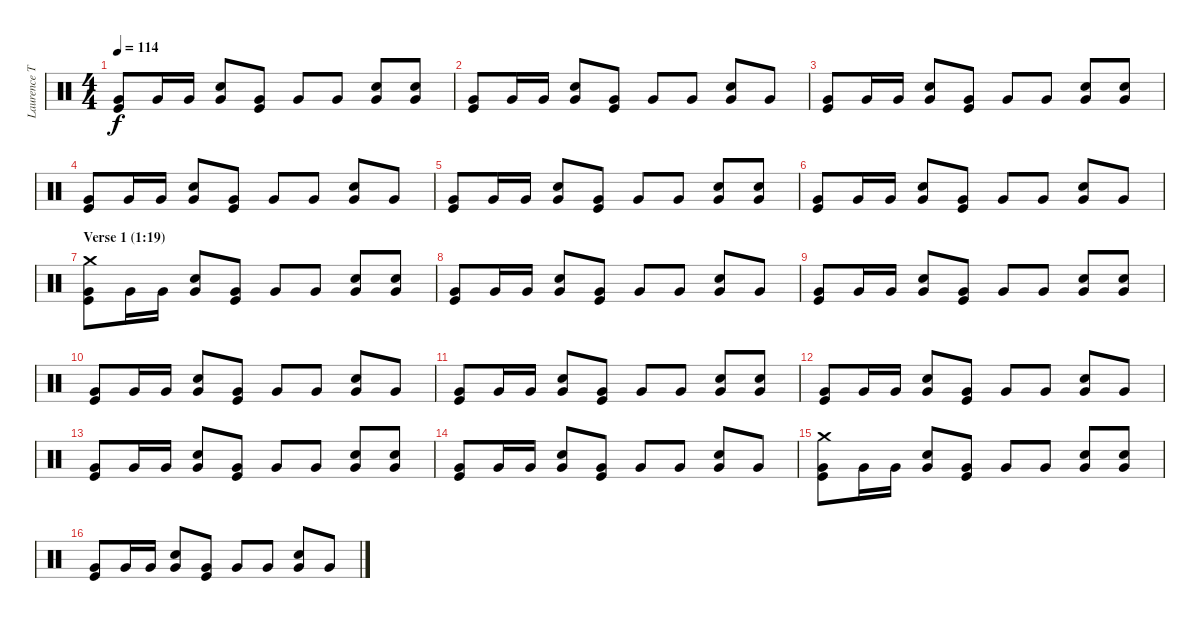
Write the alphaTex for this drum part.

\track ("Laurence Tolhurst (drums)" "Laurence T") {instrument percussion}
\staff {score}
\articulation defaults
\ts (4 4)
\tempo 114
\clef neutral
\ks c
("Very Low Tom (hit)" "Kick (hit)").8{dy f} "Very Low Tom (hit)".16 "Very Low Tom (hit)".16 ("Very Low Tom (hit)" "Snare (hit) 2").8 ("Very Low Tom (hit)" "Kick (hit)").8 "Very Low Tom (hit)".8 "Very Low Tom (hit)".8 ("Very Low Tom (hit)" "Snare (hit) 2").8 ("Very Low Tom (hit)" "Snare (hit) 2").8 |
("Very Low Tom (hit)" "Kick (hit)").8 "Very Low Tom (hit)".16 "Very Low Tom (hit)".16 ("Very Low Tom (hit)" "Snare (hit) 2").8 ("Very Low Tom (hit)" "Kick (hit)").8 "Very Low Tom (hit)".8 "Very Low Tom (hit)".8 ("Very Low Tom (hit)" "Snare (hit) 2").8 "Very Low Tom (hit)".8 |
("Very Low Tom (hit)" "Kick (hit)").8 "Very Low Tom (hit)".16 "Very Low Tom (hit)".16 ("Very Low Tom (hit)" "Snare (hit) 2").8 ("Very Low Tom (hit)" "Kick (hit)").8 "Very Low Tom (hit)".8 "Very Low Tom (hit)".8 ("Very Low Tom (hit)" "Snare (hit) 2").8 ("Very Low Tom (hit)" "Snare (hit) 2").8 |
("Very Low Tom (hit)" "Kick (hit)").8 "Very Low Tom (hit)".16 "Very Low Tom (hit)".16 ("Very Low Tom (hit)" "Snare (hit) 2").8 ("Very Low Tom (hit)" "Kick (hit)").8 "Very Low Tom (hit)".8 "Very Low Tom (hit)".8 ("Very Low Tom (hit)" "Snare (hit) 2").8 "Very Low Tom (hit)".8 |
("Very Low Tom (hit)" "Kick (hit)").8 "Very Low Tom (hit)".16 "Very Low Tom (hit)".16 ("Very Low Tom (hit)" "Snare (hit) 2").8 ("Very Low Tom (hit)" "Kick (hit)").8 "Very Low Tom (hit)".8 "Very Low Tom (hit)".8 ("Very Low Tom (hit)" "Snare (hit) 2").8 ("Very Low Tom (hit)" "Snare (hit) 2").8 |
("Very Low Tom (hit)" "Kick (hit)").8 "Very Low Tom (hit)".16 "Very Low Tom (hit)".16 ("Very Low Tom (hit)" "Snare (hit) 2").8 ("Very Low Tom (hit)" "Kick (hit)").8 "Very Low Tom (hit)".8 "Very Low Tom (hit)".8 ("Very Low Tom (hit)" "Snare (hit) 2").8 "Very Low Tom (hit)".8 |
\section ("" "Verse 1 (1:19)")
("Crash medium (hit)" "Very Low Tom (hit)" "Kick (hit)").8 "Very Low Tom (hit)".16 "Very Low Tom (hit)".16 ("Very Low Tom (hit)" "Snare (hit) 2").8 ("Very Low Tom (hit)" "Kick (hit)").8 "Very Low Tom (hit)".8 "Very Low Tom (hit)".8 ("Very Low Tom (hit)" "Snare (hit) 2").8 ("Very Low Tom (hit)" "Snare (hit) 2").8 |
("Very Low Tom (hit)" "Kick (hit)").8 "Very Low Tom (hit)".16 "Very Low Tom (hit)".16 ("Very Low Tom (hit)" "Snare (hit) 2").8 ("Very Low Tom (hit)" "Kick (hit)").8 "Very Low Tom (hit)".8 "Very Low Tom (hit)".8 ("Very Low Tom (hit)" "Snare (hit) 2").8 "Very Low Tom (hit)".8 |
("Very Low Tom (hit)" "Kick (hit)").8 "Very Low Tom (hit)".16 "Very Low Tom (hit)".16 ("Very Low Tom (hit)" "Snare (hit) 2").8 ("Very Low Tom (hit)" "Kick (hit)").8 "Very Low Tom (hit)".8 "Very Low Tom (hit)".8 ("Very Low Tom (hit)" "Snare (hit) 2").8 ("Very Low Tom (hit)" "Snare (hit) 2").8 |
("Very Low Tom (hit)" "Kick (hit)").8 "Very Low Tom (hit)".16 "Very Low Tom (hit)".16 ("Very Low Tom (hit)" "Snare (hit) 2").8 ("Very Low Tom (hit)" "Kick (hit)").8 "Very Low Tom (hit)".8 "Very Low Tom (hit)".8 ("Very Low Tom (hit)" "Snare (hit) 2").8 "Very Low Tom (hit)".8 |
("Very Low Tom (hit)" "Kick (hit)").8 "Very Low Tom (hit)".16 "Very Low Tom (hit)".16 ("Very Low Tom (hit)" "Snare (hit) 2").8 ("Very Low Tom (hit)" "Kick (hit)").8 "Very Low Tom (hit)".8 "Very Low Tom (hit)".8 ("Very Low Tom (hit)" "Snare (hit) 2").8 ("Very Low Tom (hit)" "Snare (hit) 2").8 |
("Very Low Tom (hit)" "Kick (hit)").8 "Very Low Tom (hit)".16 "Very Low Tom (hit)".16 ("Very Low Tom (hit)" "Snare (hit) 2").8 ("Very Low Tom (hit)" "Kick (hit)").8 "Very Low Tom (hit)".8 "Very Low Tom (hit)".8 ("Very Low Tom (hit)" "Snare (hit) 2").8 "Very Low Tom (hit)".8 |
("Very Low Tom (hit)" "Kick (hit)").8 "Very Low Tom (hit)".16 "Very Low Tom (hit)".16 ("Very Low Tom (hit)" "Snare (hit) 2").8 ("Very Low Tom (hit)" "Kick (hit)").8 "Very Low Tom (hit)".8 "Very Low Tom (hit)".8 ("Very Low Tom (hit)" "Snare (hit) 2").8 ("Very Low Tom (hit)" "Snare (hit) 2").8 |
("Very Low Tom (hit)" "Kick (hit)").8 "Very Low Tom (hit)".16 "Very Low Tom (hit)".16 ("Very Low Tom (hit)" "Snare (hit) 2").8 ("Very Low Tom (hit)" "Kick (hit)").8 "Very Low Tom (hit)".8 "Very Low Tom (hit)".8 ("Very Low Tom (hit)" "Snare (hit) 2").8 "Very Low Tom (hit)".8 |
("Crash medium (hit)" "Very Low Tom (hit)" "Kick (hit)").8 "Very Low Tom (hit)".16 "Very Low Tom (hit)".16 ("Very Low Tom (hit)" "Snare (hit) 2").8 ("Very Low Tom (hit)" "Kick (hit)").8 "Very Low Tom (hit)".8 "Very Low Tom (hit)".8 ("Very Low Tom (hit)" "Snare (hit) 2").8 ("Very Low Tom (hit)" "Snare (hit) 2").8 |
("Very Low Tom (hit)" "Kick (hit)").8 "Very Low Tom (hit)".16 "Very Low Tom (hit)".16 ("Very Low Tom (hit)" "Snare (hit) 2").8 ("Very Low Tom (hit)" "Kick (hit)").8 "Very Low Tom (hit)".8 "Very Low Tom (hit)".8 ("Very Low Tom (hit)" "Snare (hit) 2").8 "Very Low Tom (hit)".8
